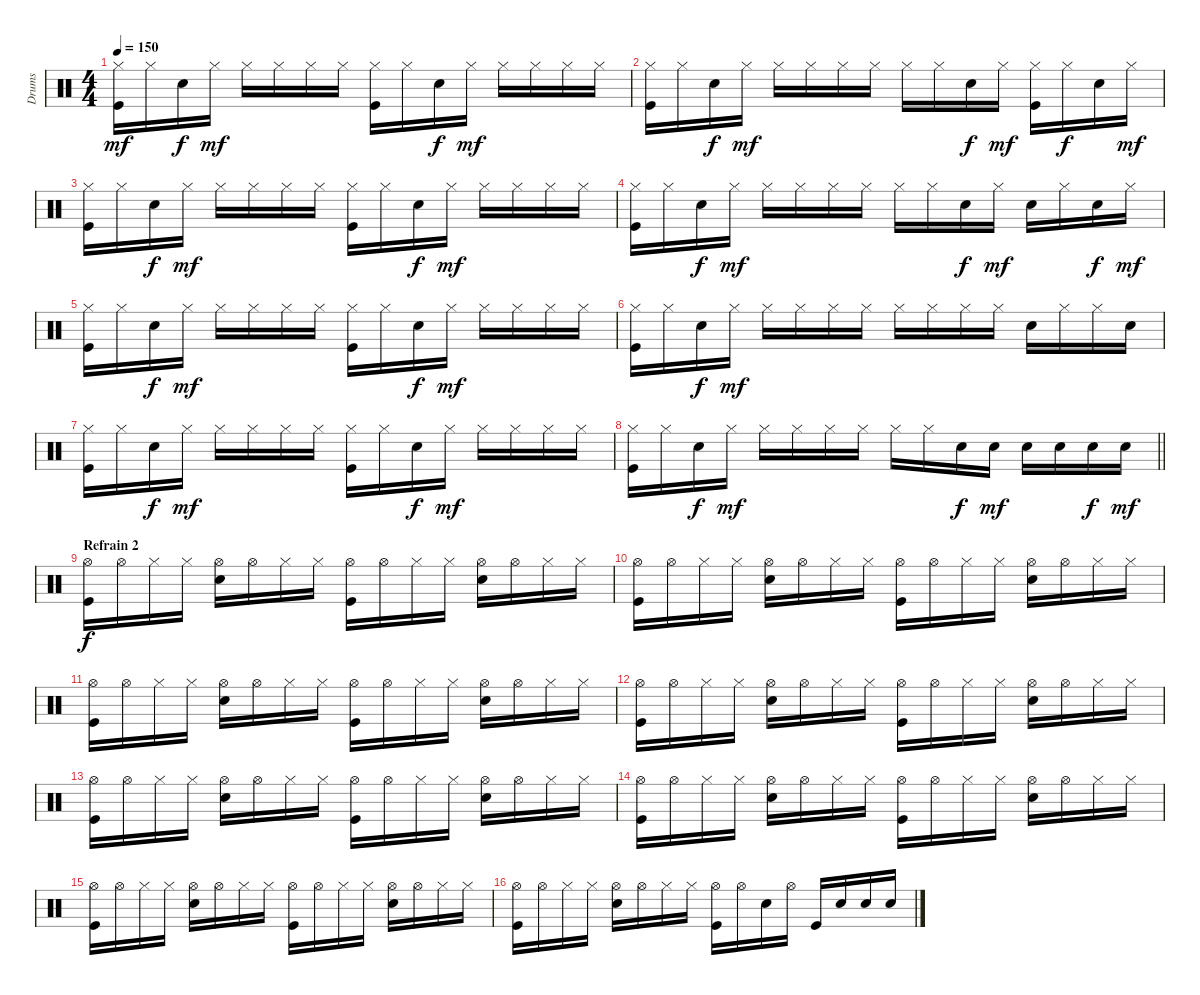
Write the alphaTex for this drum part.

\track ("Drums" "Drums") {instrument percussion}
\staff {score}
\articulation defaults
\ts (4 4)
\tempo 150
\clef neutral
\ks c
("Hi-Hat (closed)" "Kick (hit)").16{dy mf} "Hi-Hat (closed)".16 "Snare (hit) 2".16{dy f} "Hi-Hat (closed)".16{dy mf} "Hi-Hat (closed)".16 "Hi-Hat (closed)".16 "Hi-Hat (closed)".16 "Hi-Hat (closed)".16 ("Hi-Hat (closed)" "Kick (hit)").16 "Hi-Hat (closed)".16 "Snare (hit) 2".16{dy f} "Hi-Hat (closed)".16{dy mf} "Hi-Hat (closed)".16 "Hi-Hat (closed)".16 "Hi-Hat (closed)".16 "Hi-Hat (closed)".16 |
("Hi-Hat (closed)" "Kick (hit)").16 "Hi-Hat (closed)".16 "Snare (hit) 2".16{dy f} "Hi-Hat (closed)".16{dy mf} "Hi-Hat (closed)".16 "Hi-Hat (closed)".16 "Hi-Hat (closed)".16 "Hi-Hat (closed)".16 "Hi-Hat (closed)".16 "Hi-Hat (closed)".16 "Snare (hit) 2".16{dy f} "Hi-Hat (closed)".16{dy mf} ("Hi-Hat (closed)" "Kick (hit)").16 "Hi-Hat (closed)".16{dy f} "Snare (hit) 2".16 "Hi-Hat (closed)".16{dy mf} |
("Hi-Hat (closed)" "Kick (hit)").16 "Hi-Hat (closed)".16 "Snare (hit) 2".16{dy f} "Hi-Hat (closed)".16{dy mf} "Hi-Hat (closed)".16 "Hi-Hat (closed)".16 "Hi-Hat (closed)".16 "Hi-Hat (closed)".16 ("Hi-Hat (closed)" "Kick (hit)").16 "Hi-Hat (closed)".16 "Snare (hit) 2".16{dy f} "Hi-Hat (closed)".16{dy mf} "Hi-Hat (closed)".16 "Hi-Hat (closed)".16 "Hi-Hat (closed)".16 "Hi-Hat (closed)".16 |
("Hi-Hat (closed)" "Kick (hit)").16 "Hi-Hat (closed)".16 "Snare (hit) 2".16{dy f} "Hi-Hat (closed)".16{dy mf} "Hi-Hat (closed)".16 "Hi-Hat (closed)".16 "Hi-Hat (closed)".16 "Hi-Hat (closed)".16 "Hi-Hat (closed)".16 "Hi-Hat (closed)".16 "Snare (hit) 2".16{dy f} "Hi-Hat (closed)".16{dy mf} "Snare (hit) 2".16 "Hi-Hat (closed)".16 "Snare (hit) 2".16{dy f} "Hi-Hat (closed)".16{dy mf} |
("Hi-Hat (closed)" "Kick (hit)").16 "Hi-Hat (closed)".16 "Snare (hit) 2".16{dy f} "Hi-Hat (closed)".16{dy mf} "Hi-Hat (closed)".16 "Hi-Hat (closed)".16 "Hi-Hat (closed)".16 "Hi-Hat (closed)".16 ("Hi-Hat (closed)" "Kick (hit)").16 "Hi-Hat (closed)".16 "Snare (hit) 2".16{dy f} "Hi-Hat (closed)".16{dy mf} "Hi-Hat (closed)".16 "Hi-Hat (closed)".16 "Hi-Hat (closed)".16 "Hi-Hat (closed)".16 |
("Hi-Hat (closed)" "Kick (hit)").16 "Hi-Hat (closed)".16 "Snare (hit) 2".16{dy f} "Hi-Hat (closed)".16{dy mf} "Hi-Hat (closed)".16 "Hi-Hat (closed)".16 "Hi-Hat (closed)".16 "Hi-Hat (closed)".16 "Hi-Hat (closed)".16 "Hi-Hat (closed)".16 "Hi-Hat (closed)".16 "Hi-Hat (closed)".16 "Snare (hit) 2".16 "Hi-Hat (closed)".16 "Hi-Hat (closed)".16 "Snare (hit) 2".16 |
("Hi-Hat (closed)" "Kick (hit)").16 "Hi-Hat (closed)".16 "Snare (hit) 2".16{dy f} "Hi-Hat (closed)".16{dy mf} "Hi-Hat (closed)".16 "Hi-Hat (closed)".16 "Hi-Hat (closed)".16 "Hi-Hat (closed)".16 ("Hi-Hat (closed)" "Kick (hit)").16 "Hi-Hat (closed)".16 "Snare (hit) 2".16{dy f} "Hi-Hat (closed)".16{dy mf} "Hi-Hat (closed)".16 "Hi-Hat (closed)".16 "Hi-Hat (closed)".16 "Hi-Hat (closed)".16 |
\barLineRight lightlight
("Hi-Hat (closed)" "Kick (hit)").16 "Hi-Hat (closed)".16 "Snare (hit) 2".16{dy f} "Hi-Hat (closed)".16{dy mf} "Hi-Hat (closed)".16 "Hi-Hat (closed)".16 "Hi-Hat (closed)".16 "Hi-Hat (closed)".16 "Hi-Hat (closed)".16 "Hi-Hat (closed)".16 "Snare (hit) 2".16{dy f} "Snare (hit) 2".16{dy mf} "Snare (hit) 2".16 "Snare (hit) 2".16 "Snare (hit) 2".16{dy f} "Snare (hit) 2".16{dy mf} |
\section ("" "Refrain 2")
("Hi-Hat (open)" "Kick (hit)").16{dy f} "Hi-Hat (open)".16 "Hi-Hat (closed)".16 "Hi-Hat (closed)".16 ("Hi-Hat (open)" "Snare (hit) 2").16 "Hi-Hat (open)".16 "Hi-Hat (closed)".16 "Hi-Hat (closed)".16 ("Hi-Hat (open)" "Kick (hit)").16 "Hi-Hat (open)".16 "Hi-Hat (closed)".16 "Hi-Hat (closed)".16 ("Hi-Hat (open)" "Snare (hit) 2").16 "Hi-Hat (open)".16 "Hi-Hat (closed)".16 "Hi-Hat (closed)".16 |
("Hi-Hat (open)" "Kick (hit)").16 "Hi-Hat (open)".16 "Hi-Hat (closed)".16 "Hi-Hat (closed)".16 ("Hi-Hat (open)" "Snare (hit) 2").16 "Hi-Hat (open)".16 "Hi-Hat (closed)".16 "Hi-Hat (closed)".16 ("Hi-Hat (open)" "Kick (hit)").16 "Hi-Hat (open)".16 "Hi-Hat (closed)".16 "Hi-Hat (closed)".16 ("Hi-Hat (open)" "Snare (hit) 2").16 "Hi-Hat (open)".16 "Hi-Hat (closed)".16 "Hi-Hat (closed)".16 |
("Hi-Hat (open)" "Kick (hit)").16 "Hi-Hat (open)".16 "Hi-Hat (closed)".16 "Hi-Hat (closed)".16 ("Hi-Hat (open)" "Snare (hit) 2").16 "Hi-Hat (open)".16 "Hi-Hat (closed)".16 "Hi-Hat (closed)".16 ("Hi-Hat (open)" "Kick (hit)").16 "Hi-Hat (open)".16 "Hi-Hat (closed)".16 "Hi-Hat (closed)".16 ("Hi-Hat (open)" "Snare (hit) 2").16 "Hi-Hat (open)".16 "Hi-Hat (closed)".16 "Hi-Hat (closed)".16 |
("Hi-Hat (open)" "Kick (hit)").16 "Hi-Hat (open)".16 "Hi-Hat (closed)".16 "Hi-Hat (closed)".16 ("Hi-Hat (open)" "Snare (hit) 2").16 "Hi-Hat (open)".16 "Hi-Hat (closed)".16 "Hi-Hat (closed)".16 ("Hi-Hat (open)" "Kick (hit)").16 "Hi-Hat (open)".16 "Hi-Hat (closed)".16 "Hi-Hat (closed)".16 ("Hi-Hat (open)" "Snare (hit) 2").16 "Hi-Hat (open)".16 "Hi-Hat (closed)".16 "Hi-Hat (closed)".16 |
("Hi-Hat (open)" "Kick (hit)").16 "Hi-Hat (open)".16 "Hi-Hat (closed)".16 "Hi-Hat (closed)".16 ("Hi-Hat (open)" "Snare (hit) 2").16 "Hi-Hat (open)".16 "Hi-Hat (closed)".16 "Hi-Hat (closed)".16 ("Hi-Hat (open)" "Kick (hit)").16 "Hi-Hat (open)".16 "Hi-Hat (closed)".16 "Hi-Hat (closed)".16 ("Hi-Hat (open)" "Snare (hit) 2").16 "Hi-Hat (open)".16 "Hi-Hat (closed)".16 "Hi-Hat (closed)".16 |
("Hi-Hat (open)" "Kick (hit)").16 "Hi-Hat (open)".16 "Hi-Hat (closed)".16 "Hi-Hat (closed)".16 ("Hi-Hat (open)" "Snare (hit) 2").16 "Hi-Hat (open)".16 "Hi-Hat (closed)".16 "Hi-Hat (closed)".16 ("Hi-Hat (open)" "Kick (hit)").16 "Hi-Hat (open)".16 "Hi-Hat (closed)".16 "Hi-Hat (closed)".16 ("Hi-Hat (open)" "Snare (hit) 2").16 "Hi-Hat (open)".16 "Hi-Hat (closed)".16 "Hi-Hat (closed)".16 |
("Hi-Hat (open)" "Kick (hit)").16 "Hi-Hat (open)".16 "Hi-Hat (closed)".16 "Hi-Hat (closed)".16 ("Hi-Hat (open)" "Snare (hit) 2").16 "Hi-Hat (open)".16 "Hi-Hat (closed)".16 "Hi-Hat (closed)".16 ("Hi-Hat (open)" "Kick (hit)").16 "Hi-Hat (open)".16 "Hi-Hat (closed)".16 "Hi-Hat (closed)".16 ("Hi-Hat (open)" "Snare (hit) 2").16 "Hi-Hat (open)".16 "Hi-Hat (closed)".16 "Hi-Hat (closed)".16 |
("Hi-Hat (open)" "Kick (hit)").16 "Hi-Hat (open)".16 "Hi-Hat (closed)".16 "Hi-Hat (closed)".16 ("Hi-Hat (open)" "Snare (hit) 2").16 "Hi-Hat (open)".16 "Hi-Hat (closed)".16 "Hi-Hat (closed)".16 ("Hi-Hat (open)" "Kick (hit)").16 "Hi-Hat (open)".16 "Snare (hit) 2".16 "Hi-Hat (open)".16 "Kick (hit)".16 "Snare (hit) 2".16 "Snare (hit) 2".16 "Snare (hit) 2".16
